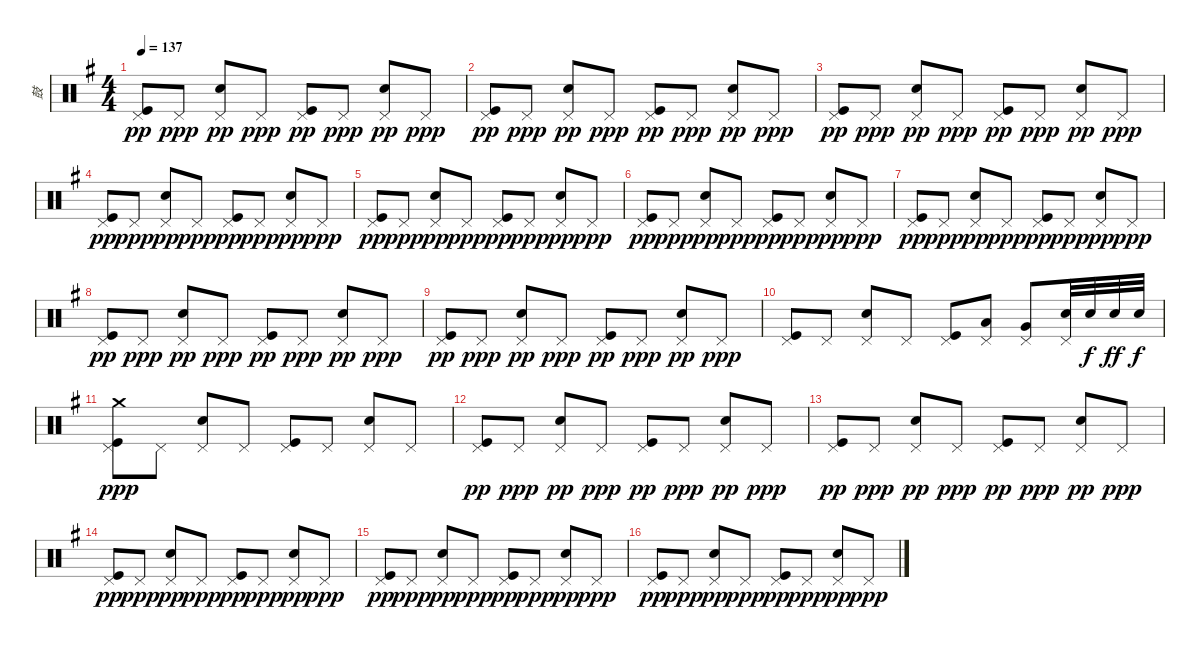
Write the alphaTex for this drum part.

\track ("鼓" "鼓") {instrument percussion}
\staff {score}
\articulation defaults
\ts (4 4)
\tempo 137
\clef neutral
\ks g
("Kick (hit)" "Pedal Hi-Hat (hit)").8{dy pp} "Pedal Hi-Hat (hit)".8{dy ppp} ("Snare (hit) 2" "Pedal Hi-Hat (hit)").8{dy pp} "Pedal Hi-Hat (hit)".8{dy ppp} ("Kick (hit)" "Pedal Hi-Hat (hit)").8{dy pp} "Pedal Hi-Hat (hit)".8{dy ppp} ("Snare (hit) 2" "Pedal Hi-Hat (hit)").8{dy pp} "Pedal Hi-Hat (hit)".8{dy ppp} |
("Kick (hit)" "Pedal Hi-Hat (hit)").8{dy pp} "Pedal Hi-Hat (hit)".8{dy ppp} ("Snare (hit) 2" "Pedal Hi-Hat (hit)").8{dy pp} "Pedal Hi-Hat (hit)".8{dy ppp} ("Kick (hit)" "Pedal Hi-Hat (hit)").8{dy pp} "Pedal Hi-Hat (hit)".8{dy ppp} ("Snare (hit) 2" "Pedal Hi-Hat (hit)").8{dy pp} "Pedal Hi-Hat (hit)".8{dy ppp} |
("Kick (hit)" "Pedal Hi-Hat (hit)").8{dy pp} "Pedal Hi-Hat (hit)".8{dy ppp} ("Snare (hit) 2" "Pedal Hi-Hat (hit)").8{dy pp} "Pedal Hi-Hat (hit)".8{dy ppp} ("Kick (hit)" "Pedal Hi-Hat (hit)").8{dy pp} "Pedal Hi-Hat (hit)".8{dy ppp} ("Snare (hit) 2" "Pedal Hi-Hat (hit)").8{dy pp} "Pedal Hi-Hat (hit)".8{dy ppp} |
("Kick (hit)" "Pedal Hi-Hat (hit)").8{dy pp} "Pedal Hi-Hat (hit)".8{dy ppp} ("Snare (hit) 2" "Pedal Hi-Hat (hit)").8{dy pp} "Pedal Hi-Hat (hit)".8{dy ppp} ("Kick (hit)" "Pedal Hi-Hat (hit)").8{dy pp} "Pedal Hi-Hat (hit)".8{dy ppp} ("Snare (hit) 2" "Pedal Hi-Hat (hit)").8{dy pp} "Pedal Hi-Hat (hit)".8{dy ppp} |
("Kick (hit)" "Pedal Hi-Hat (hit)").8{dy pp} "Pedal Hi-Hat (hit)".8{dy ppp} ("Snare (hit) 2" "Pedal Hi-Hat (hit)").8{dy pp} "Pedal Hi-Hat (hit)".8{dy ppp} ("Kick (hit)" "Pedal Hi-Hat (hit)").8{dy pp} "Pedal Hi-Hat (hit)".8{dy ppp} ("Snare (hit) 2" "Pedal Hi-Hat (hit)").8{dy pp} "Pedal Hi-Hat (hit)".8{dy ppp} |
("Kick (hit)" "Pedal Hi-Hat (hit)").8{dy pp} "Pedal Hi-Hat (hit)".8{dy ppp} ("Snare (hit) 2" "Pedal Hi-Hat (hit)").8{dy pp} "Pedal Hi-Hat (hit)".8{dy ppp} ("Kick (hit)" "Pedal Hi-Hat (hit)").8{dy pp} "Pedal Hi-Hat (hit)".8{dy ppp} ("Snare (hit) 2" "Pedal Hi-Hat (hit)").8{dy pp} "Pedal Hi-Hat (hit)".8{dy ppp} |
("Kick (hit)" "Pedal Hi-Hat (hit)").8{dy pp} "Pedal Hi-Hat (hit)".8{dy ppp} ("Snare (hit) 2" "Pedal Hi-Hat (hit)").8{dy pp} "Pedal Hi-Hat (hit)".8{dy ppp} ("Kick (hit)" "Pedal Hi-Hat (hit)").8{dy pp} "Pedal Hi-Hat (hit)".8{dy ppp} ("Snare (hit) 2" "Pedal Hi-Hat (hit)").8{dy pp} "Pedal Hi-Hat (hit)".8{dy ppp} |
("Kick (hit)" "Pedal Hi-Hat (hit)").8{dy pp} "Pedal Hi-Hat (hit)".8{dy ppp} ("Snare (hit) 2" "Pedal Hi-Hat (hit)").8{dy pp} "Pedal Hi-Hat (hit)".8{dy ppp} ("Kick (hit)" "Pedal Hi-Hat (hit)").8{dy pp} "Pedal Hi-Hat (hit)".8{dy ppp} ("Snare (hit) 2" "Pedal Hi-Hat (hit)").8{dy pp} "Pedal Hi-Hat (hit)".8{dy ppp} |
("Kick (hit)" "Pedal Hi-Hat (hit)").8{dy pp} "Pedal Hi-Hat (hit)".8{dy ppp} ("Snare (hit) 2" "Pedal Hi-Hat (hit)").8{dy pp} "Pedal Hi-Hat (hit)".8{dy ppp} ("Kick (hit)" "Pedal Hi-Hat (hit)").8{dy pp} "Pedal Hi-Hat (hit)".8{dy ppp} ("Snare (hit) 2" "Pedal Hi-Hat (hit)").8{dy pp} "Pedal Hi-Hat (hit)".8{dy ppp} |
("Kick (hit)" "Pedal Hi-Hat (hit)").8 "Pedal Hi-Hat (hit)".8 ("Snare (hit) 2" "Pedal Hi-Hat (hit)").8 "Pedal Hi-Hat (hit)".8 ("Kick (hit)" "Pedal Hi-Hat (hit)").8 ("Low Tom (hit)" "Pedal Hi-Hat (hit)").8 ("Very Low Tom (hit)" "Pedal Hi-Hat (hit)").8 ("Snare (hit) 2" "Pedal Hi-Hat (hit)").32 "Snare (hit) 2".32{dy f} "Snare (hit) 2".32{dy ff} "Snare (hit) 2".32{dy f} |
("Crash medium (hit)" "Kick (hit)" "Pedal Hi-Hat (hit)").8{dy ppp} "Pedal Hi-Hat (hit)".8 ("Snare (hit) 2" "Pedal Hi-Hat (hit)").8 "Pedal Hi-Hat (hit)".8 ("Kick (hit)" "Pedal Hi-Hat (hit)").8 "Pedal Hi-Hat (hit)".8 ("Snare (hit) 2" "Pedal Hi-Hat (hit)").8 "Pedal Hi-Hat (hit)".8 |
("Kick (hit)" "Pedal Hi-Hat (hit)").8{dy pp} "Pedal Hi-Hat (hit)".8{dy ppp} ("Snare (hit) 2" "Pedal Hi-Hat (hit)").8{dy pp} "Pedal Hi-Hat (hit)".8{dy ppp} ("Kick (hit)" "Pedal Hi-Hat (hit)").8{dy pp} "Pedal Hi-Hat (hit)".8{dy ppp} ("Snare (hit) 2" "Pedal Hi-Hat (hit)").8{dy pp} "Pedal Hi-Hat (hit)".8{dy ppp} |
("Kick (hit)" "Pedal Hi-Hat (hit)").8{dy pp} "Pedal Hi-Hat (hit)".8{dy ppp} ("Snare (hit) 2" "Pedal Hi-Hat (hit)").8{dy pp} "Pedal Hi-Hat (hit)".8{dy ppp} ("Kick (hit)" "Pedal Hi-Hat (hit)").8{dy pp} "Pedal Hi-Hat (hit)".8{dy ppp} ("Snare (hit) 2" "Pedal Hi-Hat (hit)").8{dy pp} "Pedal Hi-Hat (hit)".8{dy ppp} |
("Kick (hit)" "Pedal Hi-Hat (hit)").8{dy pp} "Pedal Hi-Hat (hit)".8{dy ppp} ("Snare (hit) 2" "Pedal Hi-Hat (hit)").8{dy pp} "Pedal Hi-Hat (hit)".8{dy ppp} ("Kick (hit)" "Pedal Hi-Hat (hit)").8{dy pp} "Pedal Hi-Hat (hit)".8{dy ppp} ("Snare (hit) 2" "Pedal Hi-Hat (hit)").8{dy pp} "Pedal Hi-Hat (hit)".8{dy ppp} |
("Kick (hit)" "Pedal Hi-Hat (hit)").8{dy pp} "Pedal Hi-Hat (hit)".8{dy ppp} ("Snare (hit) 2" "Pedal Hi-Hat (hit)").8{dy pp} "Pedal Hi-Hat (hit)".8{dy ppp} ("Kick (hit)" "Pedal Hi-Hat (hit)").8{dy pp} "Pedal Hi-Hat (hit)".8{dy ppp} ("Snare (hit) 2" "Pedal Hi-Hat (hit)").8{dy pp} "Pedal Hi-Hat (hit)".8{dy ppp} |
("Kick (hit)" "Pedal Hi-Hat (hit)").8{dy pp} "Pedal Hi-Hat (hit)".8{dy ppp} ("Snare (hit) 2" "Pedal Hi-Hat (hit)").8{dy pp} "Pedal Hi-Hat (hit)".8{dy ppp} ("Kick (hit)" "Pedal Hi-Hat (hit)").8{dy pp} "Pedal Hi-Hat (hit)".8{dy ppp} ("Snare (hit) 2" "Pedal Hi-Hat (hit)").8{dy pp} "Pedal Hi-Hat (hit)".8{dy ppp}
